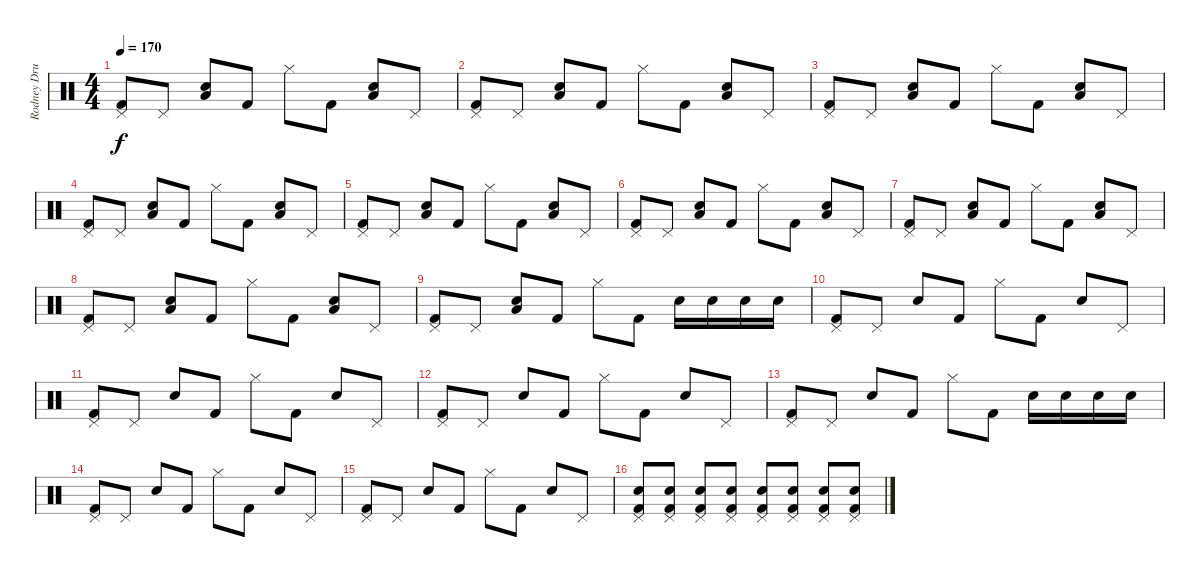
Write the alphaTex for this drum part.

\track ("Rodney Drums" "Rodney Dru") {instrument percussion}
\staff {score}
\articulation defaults
\ts (4 4)
\tempo 170
\clef neutral
\ks c
("Pedal Hi-Hat (hit)" "Kick (hit) 2").8{dy f} "Pedal Hi-Hat (hit)".8 ("Electric Snare (hit)" "Low Tom (hit)").8 "Kick (hit) 2".8 "Hi-Hat (closed)".8 "Kick (hit) 2".8 ("Electric Snare (hit)" "Low Tom (hit)").8 "Pedal Hi-Hat (hit)".8 |
("Pedal Hi-Hat (hit)" "Kick (hit) 2").8 "Pedal Hi-Hat (hit)".8 ("Electric Snare (hit)" "Low Tom (hit)").8 "Kick (hit) 2".8 "Hi-Hat (closed)".8 "Kick (hit) 2".8 ("Electric Snare (hit)" "Low Tom (hit)").8 "Pedal Hi-Hat (hit)".8 |
("Pedal Hi-Hat (hit)" "Kick (hit) 2").8 "Pedal Hi-Hat (hit)".8 ("Electric Snare (hit)" "Low Tom (hit)").8 "Kick (hit) 2".8 "Hi-Hat (closed)".8 "Kick (hit) 2".8 ("Electric Snare (hit)" "Low Tom (hit)").8 "Pedal Hi-Hat (hit)".8 |
("Pedal Hi-Hat (hit)" "Kick (hit) 2").8 "Pedal Hi-Hat (hit)".8 ("Electric Snare (hit)" "Low Tom (hit)").8 "Kick (hit) 2".8 "Hi-Hat (closed)".8 "Kick (hit) 2".8 ("Electric Snare (hit)" "Low Tom (hit)").8 "Pedal Hi-Hat (hit)".8 |
("Pedal Hi-Hat (hit)" "Kick (hit) 2").8 "Pedal Hi-Hat (hit)".8 ("Electric Snare (hit)" "Low Tom (hit)").8 "Kick (hit) 2".8 "Hi-Hat (closed)".8 "Kick (hit) 2".8 ("Electric Snare (hit)" "Low Tom (hit)").8 "Pedal Hi-Hat (hit)".8 |
("Pedal Hi-Hat (hit)" "Kick (hit) 2").8 "Pedal Hi-Hat (hit)".8 ("Electric Snare (hit)" "Low Tom (hit)").8 "Kick (hit) 2".8 "Hi-Hat (closed)".8 "Kick (hit) 2".8 ("Electric Snare (hit)" "Low Tom (hit)").8 "Pedal Hi-Hat (hit)".8 |
("Pedal Hi-Hat (hit)" "Kick (hit) 2").8 "Pedal Hi-Hat (hit)".8 ("Electric Snare (hit)" "Low Tom (hit)").8 "Kick (hit) 2".8 "Hi-Hat (closed)".8 "Kick (hit) 2".8 ("Electric Snare (hit)" "Low Tom (hit)").8 "Pedal Hi-Hat (hit)".8 |
("Pedal Hi-Hat (hit)" "Kick (hit) 2").8 "Pedal Hi-Hat (hit)".8 ("Electric Snare (hit)" "Low Tom (hit)").8 "Kick (hit) 2".8 "Hi-Hat (closed)".8 "Kick (hit) 2".8 ("Electric Snare (hit)" "Low Tom (hit)").8 "Pedal Hi-Hat (hit)".8 |
("Pedal Hi-Hat (hit)" "Kick (hit) 2").8 "Pedal Hi-Hat (hit)".8 ("Electric Snare (hit)" "Low Tom (hit)").8 "Kick (hit) 2".8 "Hi-Hat (closed)".8 "Kick (hit) 2".8 "Electric Snare (hit)".16 "Electric Snare (hit)".16 "Electric Snare (hit)".16 "Electric Snare (hit)".16 |
("Pedal Hi-Hat (hit)" "Kick (hit) 2").8 "Pedal Hi-Hat (hit)".8 "Electric Snare (hit)".8 "Kick (hit) 2".8 "Hi-Hat (closed)".8 "Kick (hit) 2".8 "Electric Snare (hit)".8 "Pedal Hi-Hat (hit)".8 |
("Pedal Hi-Hat (hit)" "Kick (hit) 2").8 "Pedal Hi-Hat (hit)".8 "Electric Snare (hit)".8 "Kick (hit) 2".8 "Hi-Hat (closed)".8 "Kick (hit) 2".8 "Electric Snare (hit)".8 "Pedal Hi-Hat (hit)".8 |
("Pedal Hi-Hat (hit)" "Kick (hit) 2").8 "Pedal Hi-Hat (hit)".8 "Electric Snare (hit)".8 "Kick (hit) 2".8 "Hi-Hat (closed)".8 "Kick (hit) 2".8 "Electric Snare (hit)".8 "Pedal Hi-Hat (hit)".8 |
("Pedal Hi-Hat (hit)" "Kick (hit) 2").8 "Pedal Hi-Hat (hit)".8 "Electric Snare (hit)".8 "Kick (hit) 2".8 "Hi-Hat (closed)".8 "Kick (hit) 2".8 "Electric Snare (hit)".16 "Electric Snare (hit)".16 "Electric Snare (hit)".16 "Electric Snare (hit)".16 |
("Pedal Hi-Hat (hit)" "Kick (hit) 2").8 "Pedal Hi-Hat (hit)".8 "Electric Snare (hit)".8 "Kick (hit) 2".8 "Hi-Hat (closed)".8 "Kick (hit) 2".8 "Electric Snare (hit)".8 "Pedal Hi-Hat (hit)".8 |
("Pedal Hi-Hat (hit)" "Kick (hit) 2").8 "Pedal Hi-Hat (hit)".8 "Electric Snare (hit)".8 "Kick (hit) 2".8 "Hi-Hat (closed)".8 "Kick (hit) 2".8 "Electric Snare (hit)".8 "Pedal Hi-Hat (hit)".8 |
("Pedal Hi-Hat (hit)" "Electric Snare (hit)" "Kick (hit) 2").8 ("Pedal Hi-Hat (hit)" "Electric Snare (hit)" "Kick (hit) 2").8 ("Pedal Hi-Hat (hit)" "Electric Snare (hit)" "Kick (hit) 2").8 ("Pedal Hi-Hat (hit)" "Electric Snare (hit)" "Kick (hit) 2").8 ("Pedal Hi-Hat (hit)" "Electric Snare (hit)" "Kick (hit) 2").8 ("Pedal Hi-Hat (hit)" "Electric Snare (hit)" "Kick (hit) 2").8 ("Pedal Hi-Hat (hit)" "Electric Snare (hit)" "Kick (hit) 2").8 ("Pedal Hi-Hat (hit)" "Electric Snare (hit)" "Kick (hit) 2").8
